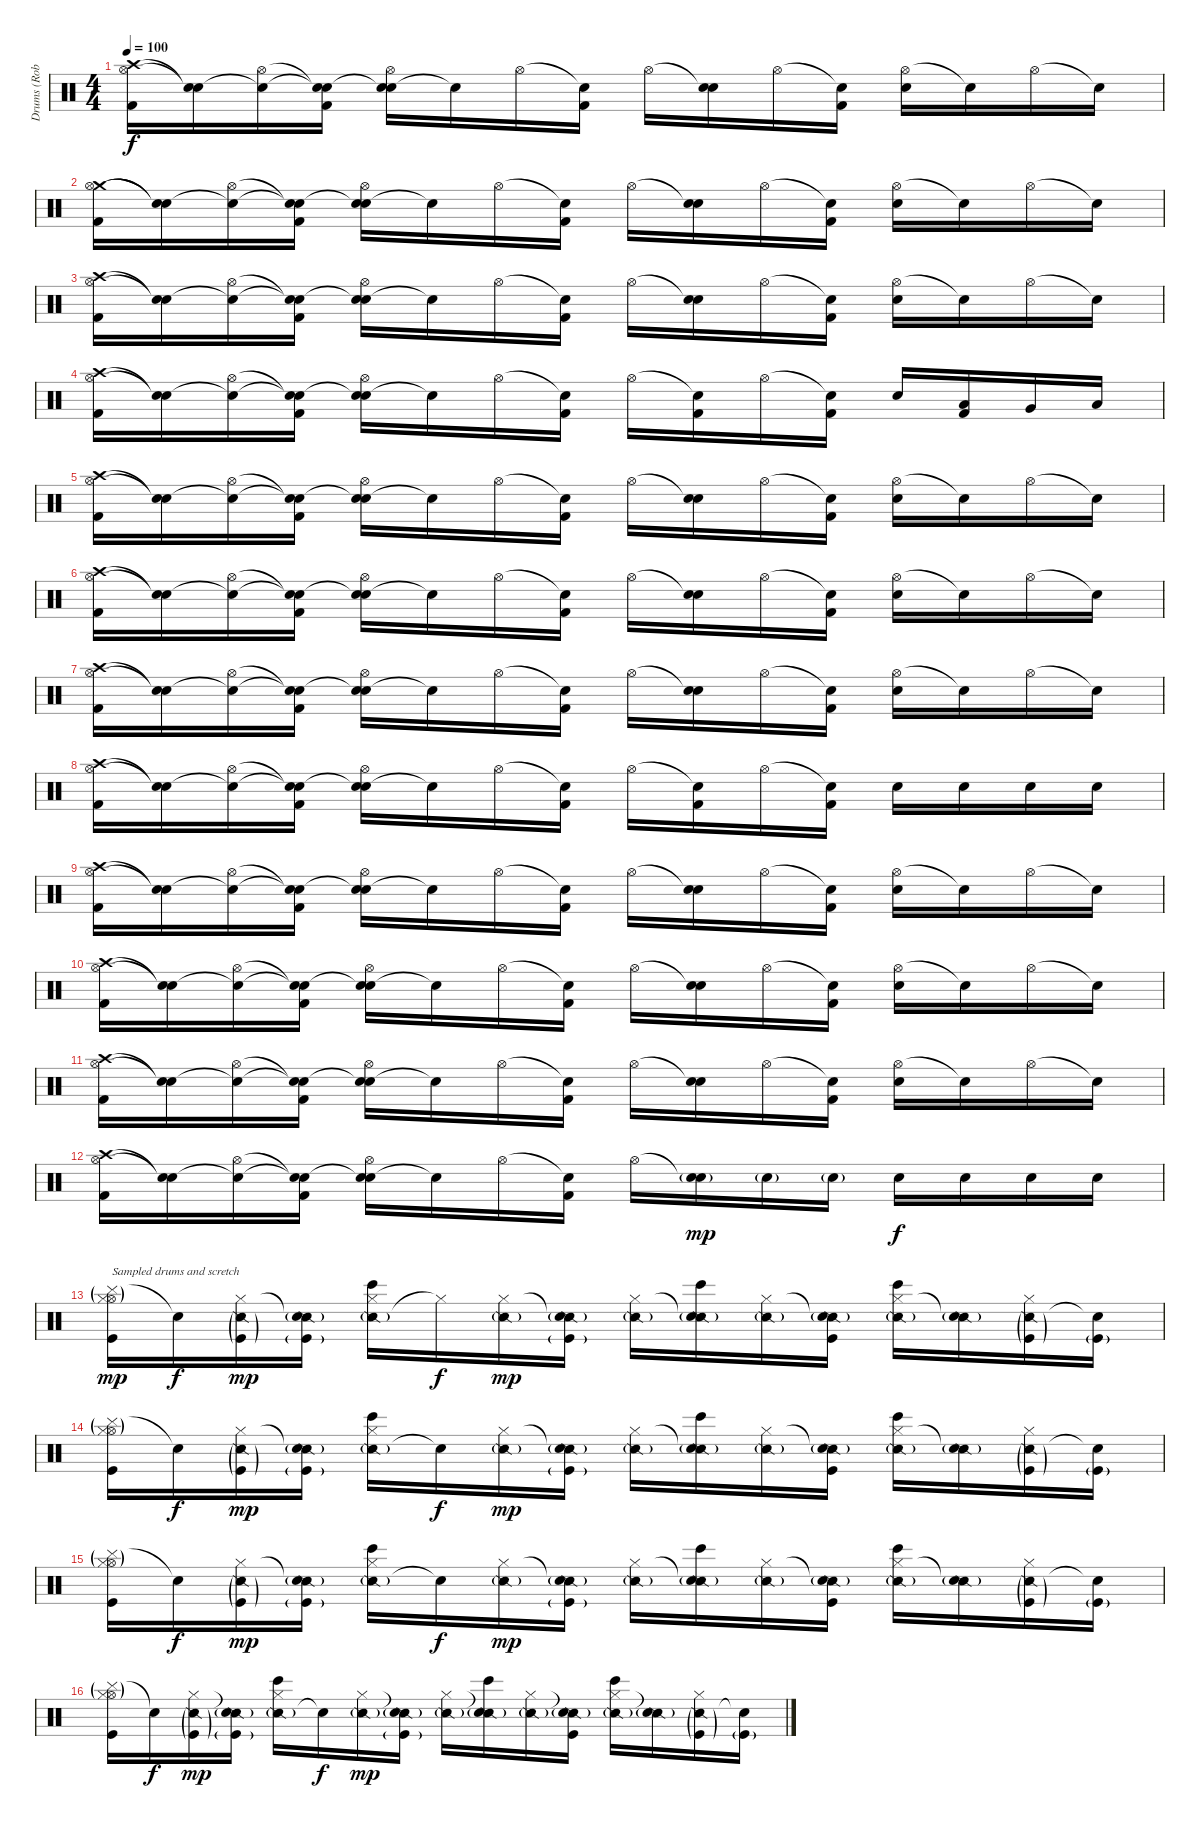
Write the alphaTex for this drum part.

\track ("Drums (Rob Bourdon)" "Drums (Rob") {instrument percussion}
\staff {score}
\articulation defaults
\ts (4 4)
\tempo 100
\clef neutral
\ks c
("Crash high (hit)" "Hi-Hat (open)" "Kick (hit) 2").16{dy f} ("Snare (hit)"{t} "Snare (hit)"{t}).16 ("Snare (hit)"{t} "Hi-Hat (open)").16 ("Snare (hit)"{t} "Snare (hit)"{t} "Kick (hit) 2").16 ("Snare (hit)"{t} "Hi-Hat (open)" "Electric Snare (hit)").16 "Snare (hit)"{t}.16 "Hi-Hat (open)".16 ("Snare (hit)"{t} "Kick (hit) 2").16 "Hi-Hat (open)".16 ("Snare (hit)"{t} "Electric Snare (hit)").16 "Hi-Hat (open)".16 ("Snare (hit)"{t} "Kick (hit) 2").16 ("Hi-Hat (open)" "Electric Snare (hit)").16 "Snare (hit)"{t}.16 "Hi-Hat (open)".16 "Snare (hit)"{t}.16 |
("Crash medium (hit)" "Hi-Hat (open)" "Kick (hit) 2").16 ("Snare (hit)"{t} "Snare (hit)"{t}).16 ("Snare (hit)"{t} "Hi-Hat (open)").16 ("Snare (hit)"{t} "Snare (hit)"{t} "Kick (hit) 2").16 ("Snare (hit)"{t} "Hi-Hat (open)" "Electric Snare (hit)").16 "Snare (hit)"{t}.16 "Hi-Hat (open)".16 ("Snare (hit)"{t} "Kick (hit) 2").16 "Hi-Hat (open)".16 ("Snare (hit)"{t} "Electric Snare (hit)").16 "Hi-Hat (open)".16 ("Snare (hit)"{t} "Kick (hit) 2").16 ("Hi-Hat (open)" "Electric Snare (hit)").16 "Snare (hit)"{t}.16 "Hi-Hat (open)".16 "Snare (hit)"{t}.16 |
("Crash high (hit)" "Hi-Hat (open)" "Kick (hit) 2").16 ("Snare (hit)"{t} "Snare (hit)"{t}).16 ("Snare (hit)"{t} "Hi-Hat (open)").16 ("Snare (hit)"{t} "Snare (hit)"{t} "Kick (hit) 2").16 ("Snare (hit)"{t} "Hi-Hat (open)" "Electric Snare (hit)").16 "Snare (hit)"{t}.16 "Hi-Hat (open)".16 ("Snare (hit)"{t} "Kick (hit) 2").16 "Hi-Hat (open)".16 ("Snare (hit)"{t} "Electric Snare (hit)").16 "Hi-Hat (open)".16 ("Snare (hit)"{t} "Kick (hit) 2").16 ("Hi-Hat (open)" "Electric Snare (hit)").16 "Snare (hit)"{t}.16 "Hi-Hat (open)".16 "Snare (hit)"{t}.16 |
("Crash high (hit)" "Hi-Hat (open)" "Kick (hit) 2").16 ("Snare (hit)"{t} "Snare (hit)"{t}).16 ("Snare (hit)"{t} "Hi-Hat (open)").16 ("Snare (hit)"{t} "Snare (hit)"{t} "Kick (hit) 2").16 ("Snare (hit)"{t} "Hi-Hat (open)" "Electric Snare (hit)").16 "Snare (hit)"{t}.16 "Hi-Hat (open)".16 ("Snare (hit)"{t} "Kick (hit) 2").16 "Hi-Hat (open)".16 ("Snare (hit)"{t} "Kick (hit) 2").16 "Hi-Hat (open)".16 ("Snare (hit)"{t} "Kick (hit) 2").16 "Electric Snare (hit)".16 ("Low Tom (hit)" "Kick (hit) 2").16 "Very Low Tom (hit)".16 "Low Floor Tom (hit)".16 |
("Crash high (hit)" "Hi-Hat (open)" "Kick (hit) 2").16 ("Snare (hit)"{t} "Snare (hit)"{t}).16 ("Snare (hit)"{t} "Hi-Hat (open)").16 ("Snare (hit)"{t} "Snare (hit)"{t} "Kick (hit) 2").16 ("Snare (hit)"{t} "Hi-Hat (open)" "Electric Snare (hit)").16 "Snare (hit)"{t}.16 "Hi-Hat (open)".16 ("Snare (hit)"{t} "Kick (hit) 2").16 "Hi-Hat (open)".16 ("Snare (hit)"{t} "Electric Snare (hit)").16 "Hi-Hat (open)".16 ("Snare (hit)"{t} "Kick (hit) 2").16 ("Hi-Hat (open)" "Electric Snare (hit)").16 "Snare (hit)"{t}.16 "Hi-Hat (open)".16 "Snare (hit)"{t}.16 |
("Crash high (hit)" "Hi-Hat (open)" "Kick (hit) 2").16 ("Snare (hit)"{t} "Snare (hit)"{t}).16 ("Snare (hit)"{t} "Hi-Hat (open)").16 ("Snare (hit)"{t} "Snare (hit)"{t} "Kick (hit) 2").16 ("Snare (hit)"{t} "Hi-Hat (open)" "Electric Snare (hit)").16 "Snare (hit)"{t}.16 "Hi-Hat (open)".16 ("Snare (hit)"{t} "Kick (hit) 2").16 "Hi-Hat (open)".16 ("Snare (hit)"{t} "Electric Snare (hit)").16 "Hi-Hat (open)".16 ("Snare (hit)"{t} "Kick (hit) 2").16 ("Hi-Hat (open)" "Electric Snare (hit)").16 "Snare (hit)"{t}.16 "Hi-Hat (open)".16 "Snare (hit)"{t}.16 |
("Crash high (hit)" "Hi-Hat (open)" "Kick (hit) 2").16 ("Snare (hit)"{t} "Snare (hit)"{t}).16 ("Snare (hit)"{t} "Hi-Hat (open)").16 ("Snare (hit)"{t} "Snare (hit)"{t} "Kick (hit) 2").16 ("Snare (hit)"{t} "Hi-Hat (open)" "Electric Snare (hit)").16 "Snare (hit)"{t}.16 "Hi-Hat (open)".16 ("Snare (hit)"{t} "Kick (hit) 2").16 "Hi-Hat (open)".16 ("Snare (hit)"{t} "Electric Snare (hit)").16 "Hi-Hat (open)".16 ("Snare (hit)"{t} "Kick (hit) 2").16 ("Hi-Hat (open)" "Electric Snare (hit)").16 "Snare (hit)"{t}.16 "Hi-Hat (open)".16 "Snare (hit)"{t}.16 |
("Crash high (hit)" "Hi-Hat (open)" "Kick (hit) 2").16 ("Snare (hit)"{t} "Snare (hit)"{t}).16 ("Snare (hit)"{t} "Hi-Hat (open)").16 ("Snare (hit)"{t} "Snare (hit)"{t} "Kick (hit) 2").16 ("Snare (hit)"{t} "Hi-Hat (open)" "Electric Snare (hit)").16 "Snare (hit)"{t}.16 "Hi-Hat (open)".16 ("Snare (hit)"{t} "Kick (hit) 2").16 "Hi-Hat (open)".16 ("Snare (hit)"{t} "Kick (hit) 2").16 "Hi-Hat (open)".16 ("Snare (hit)"{t} "Kick (hit) 2").16 "Electric Snare (hit)".16 "Electric Snare (hit)".16 "Electric Snare (hit)".16 "Electric Snare (hit)".16 |
("Crash high (hit)" "Hi-Hat (open)" "Kick (hit) 2").16 ("Snare (hit)"{t} "Snare (hit)"{t}).16 ("Snare (hit)"{t} "Hi-Hat (open)").16 ("Snare (hit)"{t} "Snare (hit)"{t} "Kick (hit) 2").16 ("Snare (hit)"{t} "Hi-Hat (open)" "Electric Snare (hit)").16 "Snare (hit)"{t}.16 "Hi-Hat (open)".16 ("Snare (hit)"{t} "Kick (hit) 2").16 "Hi-Hat (open)".16 ("Snare (hit)"{t} "Electric Snare (hit)").16 "Hi-Hat (open)".16 ("Snare (hit)"{t} "Kick (hit) 2").16 ("Hi-Hat (open)" "Electric Snare (hit)").16 "Snare (hit)"{t}.16 "Hi-Hat (open)".16 "Snare (hit)"{t}.16 |
("Crash high (hit)" "Hi-Hat (open)" "Kick (hit) 2").16 ("Snare (hit)"{t} "Snare (hit)"{t}).16 ("Snare (hit)"{t} "Hi-Hat (open)").16 ("Snare (hit)"{t} "Snare (hit)"{t} "Kick (hit) 2").16 ("Snare (hit)"{t} "Hi-Hat (open)" "Electric Snare (hit)").16 "Snare (hit)"{t}.16 "Hi-Hat (open)".16 ("Snare (hit)"{t} "Kick (hit) 2").16 "Hi-Hat (open)".16 ("Snare (hit)"{t} "Electric Snare (hit)").16 "Hi-Hat (open)".16 ("Snare (hit)"{t} "Kick (hit) 2").16 ("Hi-Hat (open)" "Electric Snare (hit)").16 "Snare (hit)"{t}.16 "Hi-Hat (open)".16 "Snare (hit)"{t}.16 |
("Crash high (hit)" "Hi-Hat (open)" "Kick (hit) 2").16 ("Snare (hit)"{t} "Snare (hit)"{t}).16 ("Snare (hit)"{t} "Hi-Hat (open)").16 ("Snare (hit)"{t} "Snare (hit)"{t} "Kick (hit) 2").16 ("Snare (hit)"{t} "Hi-Hat (open)" "Electric Snare (hit)").16 "Snare (hit)"{t}.16 "Hi-Hat (open)".16 ("Snare (hit)"{t} "Kick (hit) 2").16 "Hi-Hat (open)".16 ("Snare (hit)"{t} "Electric Snare (hit)").16 "Hi-Hat (open)".16 ("Snare (hit)"{t} "Kick (hit) 2").16 ("Hi-Hat (open)" "Electric Snare (hit)").16 "Snare (hit)"{t}.16 "Hi-Hat (open)".16 "Snare (hit)"{t}.16 |
("Crash high (hit)" "Hi-Hat (open)" "Kick (hit) 2").16 ("Snare (hit)"{t} "Snare (hit)"{t}).16 ("Snare (hit)"{t} "Hi-Hat (open)").16 ("Snare (hit)"{t} "Snare (hit)"{t} "Kick (hit) 2").16 ("Snare (hit)"{t} "Hi-Hat (open)" "Electric Snare (hit)").16 "Snare (hit)"{t}.16 "Hi-Hat (open)".16 ("Snare (hit)"{t} "Kick (hit) 2").16 "Hi-Hat (open)".16 ("Snare (hit)"{t} "Electric Snare (hit)"{g}).16{dy mp} "Electric Snare (hit)"{g}.16 "Electric Snare (hit)"{g}.16 "Electric Snare (hit)".16{dy f} "Electric Snare (hit)".16 "Electric Snare (hit)".16 "Electric Snare (hit)".16 |
("Cymbal (hit)"{g} "Hi-Hat (open)"{g} "Hi-Hat (closed)" "Kick (hit)").16{txt "Sampled drums and scretch" dy mp volume 12} "Snare (hit)"{t}.16{dy f} ("Snare (side stick) 2"{g} "Hi-Hat (closed)" "Kick (hit)"{g}).16{dy mp} ("Snare (side stick) 2"{g} "Snare (hit)"{t} "Kick (hit)"{g}).16 ("Snare (side stick) 2"{g} "Hi-Hat (closed)" "Bongo High (hit)").16 "Hi-Hat (closed)"{t}.16{dy f} ("Snare (side stick) 2"{g} "Hi-Hat (closed)").16{dy mp} ("Snare (side stick) 2"{g} "Snare (hit)"{t} "Kick (hit)"{g}).16 ("Snare (side stick) 2"{g} "Hi-Hat (closed)").16 ("Snare (side stick) 2"{g} "Snare (hit)"{t} "Bongo High (hit)").16 ("Snare (side stick) 2"{g} "Hi-Hat (closed)").16 ("Snare (side stick) 2"{g} "Snare (hit)"{t} "Kick (hit)").16 ("Snare (side stick) 2"{g} "Hi-Hat (closed)" "Bongo High (hit)").16 ("Snare (side stick) 2"{g} "Snare (hit)"{t}).16 ("Snare (side stick) 2"{g} "Hi-Hat (closed)" "Kick (hit)"{g}).16 ("Snare (hit)"{t} "Kick (hit)"{g}).16 |
("Cymbal (hit)"{g} "Hi-Hat (open)"{g} "Hi-Hat (closed)" "Kick (hit)").16{volume 8} "Snare (hit)"{t}.16{dy f} ("Snare (side stick) 2"{g} "Hi-Hat (closed)" "Kick (hit)"{g}).16{dy mp} ("Snare (side stick) 2"{g} "Snare (hit)"{t} "Kick (hit)"{g}).16 ("Snare (side stick) 2"{g} "Hi-Hat (closed)" "Bongo High (hit)").16 "Snare (hit)"{t}.16{dy f} ("Snare (side stick) 2"{g} "Hi-Hat (closed)").16{dy mp} ("Snare (side stick) 2"{g} "Snare (hit)"{t} "Kick (hit)"{g}).16 ("Snare (side stick) 2"{g} "Hi-Hat (closed)").16 ("Snare (side stick) 2"{g} "Snare (hit)"{t} "Bongo High (hit)").16 ("Snare (side stick) 2"{g} "Hi-Hat (closed)").16 ("Snare (side stick) 2"{g} "Snare (hit)"{t} "Kick (hit)").16 ("Snare (side stick) 2"{g} "Hi-Hat (closed)" "Bongo High (hit)").16 ("Snare (side stick) 2"{g} "Snare (hit)"{t}).16 ("Snare (side stick) 2"{g} "Hi-Hat (closed)" "Kick (hit)"{g}).16 ("Snare (hit)"{t} "Kick (hit)"{g}).16 |
("Cymbal (hit)"{g} "Hi-Hat (open)"{g} "Hi-Hat (closed)" "Kick (hit)").16{volume 6} "Snare (hit)"{t}.16{dy f} ("Snare (side stick) 2"{g} "Hi-Hat (closed)" "Kick (hit)"{g}).16{dy mp} ("Snare (side stick) 2"{g} "Snare (hit)"{t} "Kick (hit)"{g}).16 ("Snare (side stick) 2"{g} "Hi-Hat (closed)" "Bongo High (hit)").16 "Snare (hit)"{t}.16{dy f} ("Snare (side stick) 2"{g} "Hi-Hat (closed)").16{dy mp} ("Snare (side stick) 2"{g} "Snare (hit)"{t} "Kick (hit)"{g}).16 ("Snare (side stick) 2"{g} "Hi-Hat (closed)").16 ("Snare (side stick) 2"{g} "Snare (hit)"{t} "Bongo High (hit)").16 ("Snare (side stick) 2"{g} "Hi-Hat (closed)").16 ("Snare (side stick) 2"{g} "Snare (hit)"{t} "Kick (hit)").16 ("Snare (side stick) 2"{g} "Hi-Hat (closed)" "Bongo High (hit)").16 ("Snare (side stick) 2"{g} "Snare (hit)"{t}).16 ("Snare (side stick) 2"{g} "Hi-Hat (closed)" "Kick (hit)"{g}).16 ("Snare (hit)"{t} "Kick (hit)"{g}).16 |
("Cymbal (hit)"{g} "Hi-Hat (open)"{g} "Hi-Hat (closed)" "Kick (hit)").16{volume 0} "Snare (hit)"{t}.16{dy f} ("Snare (side stick) 2"{g} "Hi-Hat (closed)" "Kick (hit)"{g}).16{dy mp} ("Snare (side stick) 2"{g} "Snare (hit)"{t} "Kick (hit)"{g}).16 ("Snare (side stick) 2"{g} "Hi-Hat (closed)" "Bongo High (hit)").16 "Snare (hit)"{t}.16{dy f} ("Snare (side stick) 2"{g} "Hi-Hat (closed)").16{dy mp} ("Snare (side stick) 2"{g} "Snare (hit)"{t} "Kick (hit)"{g}).16 ("Snare (side stick) 2"{g} "Hi-Hat (closed)").16 ("Snare (side stick) 2"{g} "Snare (hit)"{t} "Bongo High (hit)").16 ("Snare (side stick) 2"{g} "Hi-Hat (closed)").16 ("Snare (side stick) 2"{g} "Snare (hit)"{t} "Kick (hit)").16 ("Snare (side stick) 2"{g} "Hi-Hat (closed)" "Bongo High (hit)").16 ("Snare (side stick) 2"{g} "Snare (hit)"{t}).16 ("Snare (side stick) 2"{g} "Hi-Hat (closed)" "Kick (hit)"{g}).16 ("Snare (hit)"{t} "Kick (hit)"{g}).16
